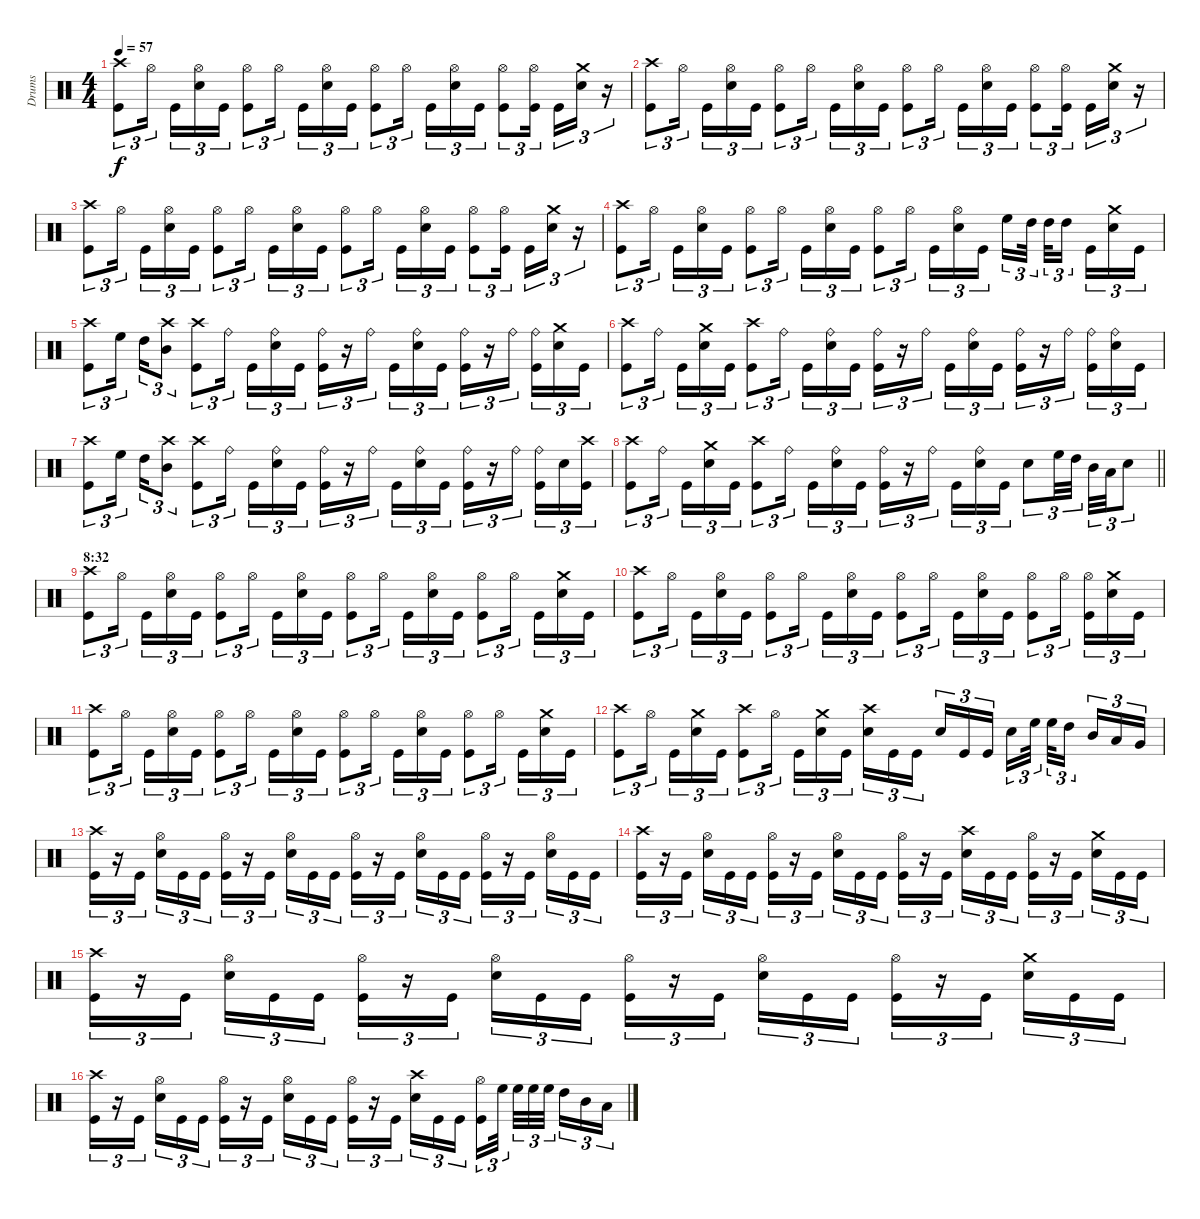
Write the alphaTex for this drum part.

\track ("Drums" "Drums") {instrument percussion}
\staff {score}
\articulation defaults
\ts (4 4)
\tempo 57
\clef neutral
\ks c
("Kick (hit)" "Crash high (hit)").8{tu (3 2) dy f} "Hi-Hat (open)".16{tu (3 2) beam splitsecondary} "Kick (hit)".16{tu (3 2)} ("Snare (hit) 2" "Hi-Hat (open)").16{tu (3 2)} "Kick (hit)".16{tu (3 2)} ("Kick (hit)" "Hi-Hat (open)").8{tu (3 2)} "Hi-Hat (open)".16{tu (3 2) beam splitsecondary} "Kick (hit)".16{tu (3 2)} ("Snare (hit) 2" "Hi-Hat (open)").16{tu (3 2)} "Kick (hit)".16{tu (3 2)} ("Kick (hit)" "Hi-Hat (open)").8{tu (3 2)} "Hi-Hat (open)".16{tu (3 2) beam splitsecondary} "Kick (hit)".16{tu (3 2)} ("Snare (hit) 2" "Hi-Hat (open)").16{tu (3 2)} "Kick (hit)".16{tu (3 2)} ("Kick (hit)" "Hi-Hat (open)").8{tu (3 2)} ("Hi-Hat (open)" "Kick (hit)").16{tu (3 2) beam splitsecondary} "Kick (hit)".16{tu (3 2)} ("Snare (hit) 2" "Crash medium (hit)").16{tu (3 2)} r.16{tu (3 2)} |
("Kick (hit)" "Crash high (hit)").8{tu (3 2)} "Hi-Hat (open)".16{tu (3 2) beam splitsecondary} "Kick (hit)".16{tu (3 2)} ("Snare (hit) 2" "Hi-Hat (open)").16{tu (3 2)} "Kick (hit)".16{tu (3 2)} ("Kick (hit)" "Hi-Hat (open)").8{tu (3 2)} "Hi-Hat (open)".16{tu (3 2) beam splitsecondary} "Kick (hit)".16{tu (3 2)} ("Snare (hit) 2" "Hi-Hat (open)").16{tu (3 2)} "Kick (hit)".16{tu (3 2)} ("Kick (hit)" "Hi-Hat (open)").8{tu (3 2)} "Hi-Hat (open)".16{tu (3 2) beam splitsecondary} "Kick (hit)".16{tu (3 2)} ("Snare (hit) 2" "Hi-Hat (open)").16{tu (3 2)} "Kick (hit)".16{tu (3 2)} ("Kick (hit)" "Hi-Hat (open)").8{tu (3 2)} ("Hi-Hat (open)" "Kick (hit)").16{tu (3 2) beam splitsecondary} "Kick (hit)".16{tu (3 2)} ("Snare (hit) 2" "Crash medium (hit)").16{tu (3 2)} r.16{tu (3 2)} |
("Kick (hit)" "Crash high (hit)").8{tu (3 2)} "Hi-Hat (open)".16{tu (3 2) beam splitsecondary} "Kick (hit)".16{tu (3 2)} ("Snare (hit) 2" "Hi-Hat (open)").16{tu (3 2)} "Kick (hit)".16{tu (3 2)} ("Kick (hit)" "Hi-Hat (open)").8{tu (3 2)} "Hi-Hat (open)".16{tu (3 2) beam splitsecondary} "Kick (hit)".16{tu (3 2)} ("Snare (hit) 2" "Hi-Hat (open)").16{tu (3 2)} "Kick (hit)".16{tu (3 2)} ("Kick (hit)" "Hi-Hat (open)").8{tu (3 2)} "Hi-Hat (open)".16{tu (3 2) beam splitsecondary} "Kick (hit)".16{tu (3 2)} ("Snare (hit) 2" "Hi-Hat (open)").16{tu (3 2)} "Kick (hit)".16{tu (3 2)} ("Kick (hit)" "Hi-Hat (open)").8{tu (3 2)} ("Hi-Hat (open)" "Kick (hit)").16{tu (3 2) beam splitsecondary} "Kick (hit)".16{tu (3 2)} ("Snare (hit) 2" "Crash medium (hit)").16{tu (3 2)} r.16{tu (3 2)} |
("Kick (hit)" "Crash high (hit)").8{tu (3 2)} "Hi-Hat (open)".16{tu (3 2) beam splitsecondary} "Kick (hit)".16{tu (3 2)} ("Snare (hit) 2" "Hi-Hat (open)").16{tu (3 2)} "Kick (hit)".16{tu (3 2)} ("Kick (hit)" "Hi-Hat (open)").8{tu (3 2)} "Hi-Hat (open)".16{tu (3 2) beam splitsecondary} "Kick (hit)".16{tu (3 2)} ("Snare (hit) 2" "Hi-Hat (open)").16{tu (3 2)} "Kick (hit)".16{tu (3 2)} ("Kick (hit)" "Hi-Hat (open)").8{tu (3 2)} "Hi-Hat (open)".16{tu (3 2) beam splitsecondary} "Kick (hit)".16{tu (3 2)} ("Snare (hit) 2" "Hi-Hat (open)").16{tu (3 2)} "Kick (hit)".16{tu (3 2)} "High Floor Tom (hit)".16{tu (3 2)} "High Tom (hit)".32{tu (3 2) beam splitsecondary} "High Tom (hit)".32{tu (3 2)} "High Tom (hit)".16{tu (3 2) beam splitsecondary} "Kick (hit)".16{tu (3 2)} ("Snare (hit) 2" "Crash medium (hit)").16{tu (3 2)} "Kick (hit)".16{tu (3 2)} |
("Crash high (hit)" "Kick (hit)").8{tu (3 2)} "High Floor Tom (hit)".16{tu (3 2) beam splitsecondary} "High Tom (hit)".16{tu (3 2)} ("Mid Tom (hit)" "Crash high (hit)").8{tu (3 2)} ("Crash high (hit)" "Kick (hit)").8{tu (3 2)} "Ride (bell)".16{tu (3 2) beam splitsecondary} "Kick (hit)".16{tu (3 2)} ("Snare (hit) 2" "Ride (bell)").16{tu (3 2)} "Kick (hit)".16{tu (3 2)} ("Kick (hit)" "Ride (bell)").16{tu (3 2)} r.16{tu (3 2)} "Ride (bell)".16{tu (3 2) beam splitsecondary} "Kick (hit)".16{tu (3 2)} ("Snare (hit) 2" "Ride (bell)").16{tu (3 2)} "Kick (hit)".16{tu (3 2)} ("Kick (hit)" "Ride (bell)").16{tu (3 2)} r.16{tu (3 2)} "Ride (bell)".16{tu (3 2) beam splitsecondary} ("Kick (hit)" "Ride (bell)").16{tu (3 2)} ("Snare (hit) 2" "Crash medium (hit)").16{tu (3 2)} "Kick (hit)".16{tu (3 2)} |
("Crash high (hit)" "Kick (hit)").8{tu (3 2)} "Ride (bell)".16{tu (3 2) beam splitsecondary} "Kick (hit)".16{tu (3 2)} ("Snare (hit) 2" "Crash medium (hit)").16{tu (3 2)} "Kick (hit)".16{tu (3 2)} ("Crash high (hit)" "Kick (hit)").8{tu (3 2)} "Ride (bell)".16{tu (3 2) beam splitsecondary} "Kick (hit)".16{tu (3 2)} ("Snare (hit) 2" "Ride (bell)").16{tu (3 2)} "Kick (hit)".16{tu (3 2)} ("Kick (hit)" "Ride (bell)").16{tu (3 2)} r.16{tu (3 2)} "Ride (bell)".16{tu (3 2) beam splitsecondary} "Kick (hit)".16{tu (3 2)} ("Snare (hit) 2" "Ride (bell)").16{tu (3 2)} "Kick (hit)".16{tu (3 2)} ("Kick (hit)" "Ride (bell)").16{tu (3 2)} r.16{tu (3 2)} "Ride (bell)".16{tu (3 2) beam splitsecondary} ("Kick (hit)" "Ride (bell)").16{tu (3 2)} ("Snare (hit) 2" "Ride (bell)").16{tu (3 2)} "Kick (hit)".16{tu (3 2)} |
("Crash high (hit)" "Kick (hit)").8{tu (3 2)} "High Floor Tom (hit)".16{tu (3 2) beam splitsecondary} "High Tom (hit)".16{tu (3 2)} ("Mid Tom (hit)" "Crash high (hit)").8{tu (3 2)} ("Crash high (hit)" "Kick (hit)").8{tu (3 2)} "Ride (bell)".16{tu (3 2) beam splitsecondary} "Kick (hit)".16{tu (3 2)} ("Snare (hit) 2" "Ride (bell)").16{tu (3 2)} "Kick (hit)".16{tu (3 2)} ("Kick (hit)" "Ride (bell)").16{tu (3 2)} r.16{tu (3 2)} "Ride (bell)".16{tu (3 2) beam splitsecondary} "Kick (hit)".16{tu (3 2)} ("Snare (hit) 2" "Ride (bell)").16{tu (3 2)} "Kick (hit)".16{tu (3 2)} ("Kick (hit)" "Ride (bell)").16{tu (3 2)} r.16{tu (3 2)} "Ride (bell)".16{tu (3 2) beam splitsecondary} ("Kick (hit)" "Ride (bell)").16{tu (3 2)} "Snare (hit) 2".16{tu (3 2)} ("Kick (hit)" "Crash high (hit)").16{tu (3 2)} |
\barLineRight lightlight
("Crash high (hit)" "Kick (hit)").8{tu (3 2)} "Ride (bell)".16{tu (3 2) beam splitsecondary} "Kick (hit)".16{tu (3 2)} ("Snare (hit) 2" "Crash medium (hit)").16{tu (3 2)} "Kick (hit)".16{tu (3 2)} ("Crash high (hit)" "Kick (hit)").8{tu (3 2)} "Ride (bell)".16{tu (3 2) beam splitsecondary} "Kick (hit)".16{tu (3 2)} ("Snare (hit) 2" "Ride (bell)").16{tu (3 2)} "Kick (hit)".16{tu (3 2)} ("Kick (hit)" "Ride (bell)").16{tu (3 2)} r.16{tu (3 2)} "Ride (bell)".16{tu (3 2) beam splitsecondary} "Kick (hit)".16{tu (3 2)} ("Snare (hit) 2" "Ride (bell)").16{tu (3 2)} "Kick (hit)".16{tu (3 2)} "Snare (hit) 2".8{tu (3 2)} "High Floor Tom (hit)".32{tu (3 2)} "High Tom (hit)".32{tu (3 2) beam splitsecondary} "Mid Tom (hit)".32{tu (3 2)} "Low Tom (hit)".32{tu (3 2)} "Snare (hit) 2".8{tu (3 2)} |
\section ("" "8:32")
("Kick (hit)" "Crash high (hit)").8{tu (3 2)} "Hi-Hat (open)".16{tu (3 2) beam splitsecondary} "Kick (hit)".16{tu (3 2)} ("Snare (hit) 2" "Hi-Hat (open)").16{tu (3 2)} "Kick (hit)".16{tu (3 2)} ("Kick (hit)" "Hi-Hat (open)").8{tu (3 2)} "Hi-Hat (open)".16{tu (3 2) beam splitsecondary} "Kick (hit)".16{tu (3 2)} ("Snare (hit) 2" "Hi-Hat (open)").16{tu (3 2)} "Kick (hit)".16{tu (3 2)} ("Kick (hit)" "Hi-Hat (open)").8{tu (3 2)} "Hi-Hat (open)".16{tu (3 2) beam splitsecondary} "Kick (hit)".16{tu (3 2)} ("Snare (hit) 2" "Hi-Hat (open)").16{tu (3 2)} "Kick (hit)".16{tu (3 2)} ("Kick (hit)" "Hi-Hat (open)").8{tu (3 2)} "Hi-Hat (open)".16{tu (3 2) beam splitsecondary} "Kick (hit)".16{tu (3 2)} ("Snare (hit) 2" "Crash medium (hit)").16{tu (3 2)} "Kick (hit)".16{tu (3 2)} |
("Kick (hit)" "Crash high (hit)").8{tu (3 2)} "Hi-Hat (open)".16{tu (3 2) beam splitsecondary} "Kick (hit)".16{tu (3 2)} ("Snare (hit) 2" "Hi-Hat (open)").16{tu (3 2)} "Kick (hit)".16{tu (3 2)} ("Kick (hit)" "Hi-Hat (open)").8{tu (3 2)} "Hi-Hat (open)".16{tu (3 2) beam splitsecondary} "Kick (hit)".16{tu (3 2)} ("Snare (hit) 2" "Hi-Hat (open)").16{tu (3 2)} "Kick (hit)".16{tu (3 2)} ("Kick (hit)" "Hi-Hat (open)").8{tu (3 2)} "Hi-Hat (open)".16{tu (3 2) beam splitsecondary} "Kick (hit)".16{tu (3 2)} ("Snare (hit) 2" "Hi-Hat (open)").16{tu (3 2)} "Kick (hit)".16{tu (3 2)} ("Kick (hit)" "Hi-Hat (open)").8{tu (3 2)} "Hi-Hat (open)".16{tu (3 2) beam splitsecondary} ("Kick (hit)" "Hi-Hat (open)").16{tu (3 2)} ("Snare (hit) 2" "Crash medium (hit)").16{tu (3 2)} "Kick (hit)".16{tu (3 2)} |
("Kick (hit)" "Crash high (hit)").8{tu (3 2)} "Hi-Hat (open)".16{tu (3 2) beam splitsecondary} "Kick (hit)".16{tu (3 2)} ("Snare (hit) 2" "Hi-Hat (open)").16{tu (3 2)} "Kick (hit)".16{tu (3 2)} ("Kick (hit)" "Hi-Hat (open)").8{tu (3 2)} "Hi-Hat (open)".16{tu (3 2) beam splitsecondary} "Kick (hit)".16{tu (3 2)} ("Snare (hit) 2" "Hi-Hat (open)").16{tu (3 2)} "Kick (hit)".16{tu (3 2)} ("Kick (hit)" "Hi-Hat (open)").8{tu (3 2)} "Hi-Hat (open)".16{tu (3 2) beam splitsecondary} "Kick (hit)".16{tu (3 2)} ("Snare (hit) 2" "Hi-Hat (open)").16{tu (3 2)} "Kick (hit)".16{tu (3 2)} ("Kick (hit)" "Hi-Hat (open)").8{tu (3 2)} "Hi-Hat (open)".16{tu (3 2) beam splitsecondary} "Kick (hit)".16{tu (3 2)} ("Snare (hit) 2" "Crash medium (hit)").16{tu (3 2)} "Kick (hit)".16{tu (3 2)} |
("Kick (hit)" "Crash high (hit)").8{tu (3 2)} "Hi-Hat (open)".16{tu (3 2) beam splitsecondary} "Kick (hit)".16{tu (3 2)} ("Snare (hit) 2" "Crash medium (hit)").16{tu (3 2)} "Kick (hit)".16{tu (3 2)} ("Kick (hit)" "Crash high (hit)").8{tu (3 2)} "Hi-Hat (open)".16{tu (3 2) beam splitsecondary} "Kick (hit)".16{tu (3 2)} ("Snare (hit) 2" "Crash medium (hit)").16{tu (3 2)} "Kick (hit)".16{tu (3 2)} ("Snare (hit) 2" "Crash high (hit)").16{tu (3 2)} "Kick (hit)".16{tu (3 2)} "Kick (hit)".16{tu (3 2) beam splitsecondary} "Snare (hit) 2".16{tu (3 2)} "Kick (hit)".16{tu (3 2)} "Kick (hit)".16{tu (3 2)} "Snare (hit) 2".16{tu (3 2)} "High Floor Tom (hit)".32{tu (3 2) beam splitsecondary} "High Floor Tom (hit)".32{tu (3 2)} "High Tom (hit)".16{tu (3 2) beam splitsecondary} "Mid Tom (hit)".16{tu (3 2)} "Low Tom (hit)".16{tu (3 2)} "Very Low Tom (hit)".16{tu (3 2)} |
("Crash high (hit)" "Kick (hit)").16{tu (3 2)} r.16{tu (3 2)} "Kick (hit)".16{tu (3 2) beam splitsecondary} ("Snare (hit) 2" "Hi-Hat (open)").16{tu (3 2)} "Kick (hit)".16{tu (3 2)} "Kick (hit)".16{tu (3 2)} ("Hi-Hat (open)" "Kick (hit)").16{tu (3 2)} r.16{tu (3 2)} "Kick (hit)".16{tu (3 2) beam splitsecondary} ("Snare (hit) 2" "Hi-Hat (open)").16{tu (3 2)} "Kick (hit)".16{tu (3 2)} "Kick (hit)".16{tu (3 2)} ("Hi-Hat (open)" "Kick (hit)").16{tu (3 2)} r.16{tu (3 2)} "Kick (hit)".16{tu (3 2) beam splitsecondary} ("Snare (hit) 2" "Hi-Hat (open)").16{tu (3 2)} "Kick (hit)".16{tu (3 2)} "Kick (hit)".16{tu (3 2)} ("Hi-Hat (open)" "Kick (hit)").16{tu (3 2)} r.16{tu (3 2)} "Kick (hit)".16{tu (3 2) beam splitsecondary} ("Snare (hit) 2" "Hi-Hat (open)").16{tu (3 2)} "Kick (hit)".16{tu (3 2)} "Kick (hit)".16{tu (3 2)} |
("Crash high (hit)" "Kick (hit)").16{tu (3 2)} r.16{tu (3 2)} "Kick (hit)".16{tu (3 2) beam splitsecondary} ("Snare (hit) 2" "Hi-Hat (open)").16{tu (3 2)} "Kick (hit)".16{tu (3 2)} "Kick (hit)".16{tu (3 2)} ("Hi-Hat (open)" "Kick (hit)").16{tu (3 2)} r.16{tu (3 2)} "Kick (hit)".16{tu (3 2) beam splitsecondary} ("Snare (hit) 2" "Hi-Hat (open)").16{tu (3 2)} "Kick (hit)".16{tu (3 2)} "Kick (hit)".16{tu (3 2)} ("Hi-Hat (open)" "Kick (hit)").16{tu (3 2)} r.16{tu (3 2)} "Kick (hit)".16{tu (3 2) beam splitsecondary} ("Snare (hit) 2" "Crash high (hit)").16{tu (3 2)} "Kick (hit)".16{tu (3 2)} "Kick (hit)".16{tu (3 2)} ("Hi-Hat (open)" "Kick (hit)").16{tu (3 2)} r.16{tu (3 2)} "Kick (hit)".16{tu (3 2) beam splitsecondary} ("Snare (hit) 2" "Crash medium (hit)").16{tu (3 2)} "Kick (hit)".16{tu (3 2)} "Kick (hit)".16{tu (3 2)} |
("Crash high (hit)" "Kick (hit)").16{tu (3 2)} r.16{tu (3 2)} "Kick (hit)".16{tu (3 2) beam splitsecondary} ("Snare (hit) 2" "Hi-Hat (open)").16{tu (3 2)} "Kick (hit)".16{tu (3 2)} "Kick (hit)".16{tu (3 2)} ("Hi-Hat (open)" "Kick (hit)").16{tu (3 2)} r.16{tu (3 2)} "Kick (hit)".16{tu (3 2) beam splitsecondary} ("Snare (hit) 2" "Hi-Hat (open)").16{tu (3 2)} "Kick (hit)".16{tu (3 2)} "Kick (hit)".16{tu (3 2)} ("Hi-Hat (open)" "Kick (hit)").16{tu (3 2)} r.16{tu (3 2)} "Kick (hit)".16{tu (3 2) beam splitsecondary} ("Snare (hit) 2" "Hi-Hat (open)").16{tu (3 2)} "Kick (hit)".16{tu (3 2)} "Kick (hit)".16{tu (3 2)} ("Hi-Hat (open)" "Kick (hit)").16{tu (3 2)} r.16{tu (3 2)} "Kick (hit)".16{tu (3 2) beam splitsecondary} ("Snare (hit) 2" "Crash medium (hit)").16{tu (3 2)} "Kick (hit)".16{tu (3 2)} "Kick (hit)".16{tu (3 2)} |
("Crash high (hit)" "Kick (hit)").16{tu (3 2)} r.16{tu (3 2)} "Kick (hit)".16{tu (3 2) beam splitsecondary} ("Snare (hit) 2" "Hi-Hat (open)").16{tu (3 2)} "Kick (hit)".16{tu (3 2)} "Kick (hit)".16{tu (3 2)} ("Hi-Hat (open)" "Kick (hit)").16{tu (3 2)} r.16{tu (3 2)} "Kick (hit)".16{tu (3 2) beam splitsecondary} ("Snare (hit) 2" "Hi-Hat (open)").16{tu (3 2)} "Kick (hit)".16{tu (3 2)} "Kick (hit)".16{tu (3 2)} ("Hi-Hat (open)" "Kick (hit)").16{tu (3 2)} r.16{tu (3 2)} "Kick (hit)".16{tu (3 2) beam splitsecondary} ("Snare (hit) 2" "Crash high (hit)").16{tu (3 2)} "Kick (hit)".16{tu (3 2)} "Kick (hit)".16{tu (3 2)} ("Hi-Hat (open)" "Kick (hit)").16{tu (3 2)} "High Floor Tom (hit)".32{tu (3 2) beam splitsecondary} "High Floor Tom (hit)".32{tu (3 2)} "High Floor Tom (hit)".32{tu (3 2)} "High Floor Tom (hit)".32{tu (3 2) beam splitsecondary} "High Tom (hit)".16{tu (3 2)} "Mid Tom (hit)".16{tu (3 2)} "Low Tom (hit)".16{tu (3 2)}
